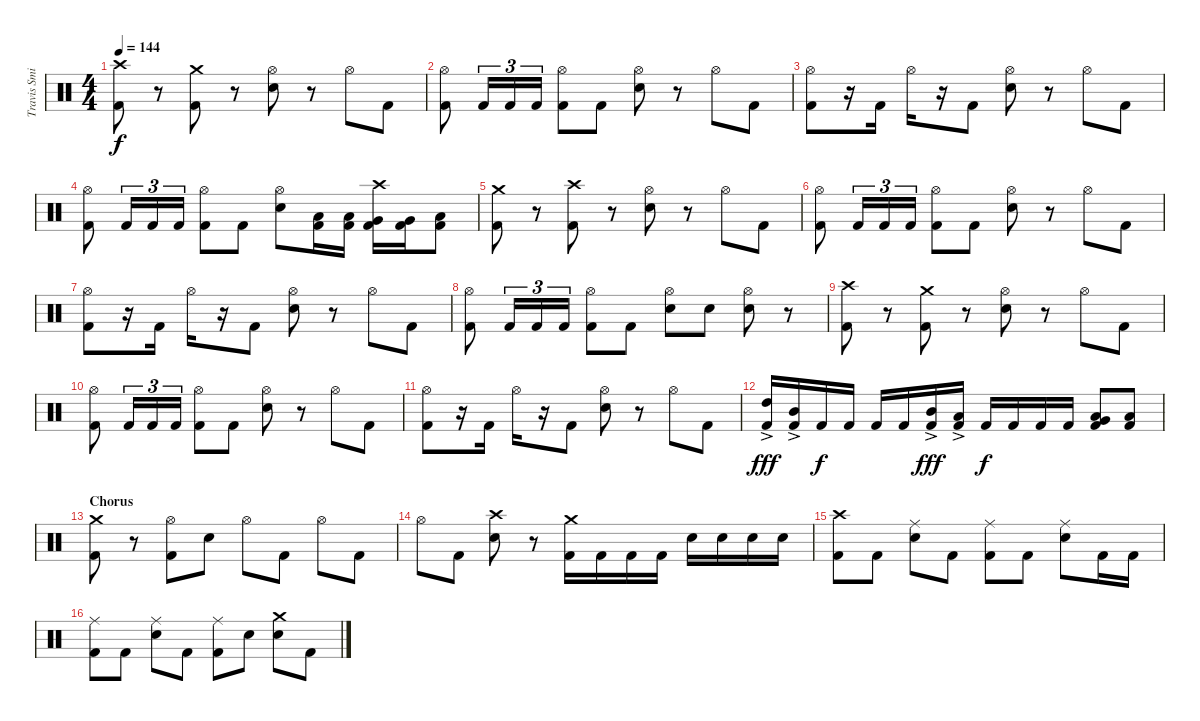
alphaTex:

\track ("Travis Smith" "Travis Smi") {instrument percussion}
\staff {score}
\articulation defaults
\ts (4 4)
\tempo 144
\clef neutral
\ks c
("Crash high (hit)" "Kick (hit) 2").8{dy f} r.8 ("Crash medium (hit)" "Kick (hit) 2").8 r.8 ("Hi-Hat (open)" "Electric Snare (hit)").8 r.8 "Hi-Hat (open)".8 "Kick (hit) 2".8 |
("Hi-Hat (open)" "Kick (hit) 2").8 "Kick (hit) 2".16{tu (3 2)} "Kick (hit) 2".16{tu (3 2)} "Kick (hit) 2".16{tu (3 2)} ("Hi-Hat (open)" "Kick (hit) 2").8 "Kick (hit) 2".8 ("Hi-Hat (open)" "Electric Snare (hit)").8 r.8 "Hi-Hat (open)".8 "Kick (hit) 2".8 |
("Hi-Hat (open)" "Kick (hit) 2").8 r.16 "Kick (hit) 2".16 "Hi-Hat (open)".16 r.16 "Kick (hit) 2".8 ("Hi-Hat (open)" "Electric Snare (hit)").8 r.8 "Hi-Hat (open)".8 "Kick (hit) 2".8 |
("Hi-Hat (open)" "Kick (hit) 2").8 "Kick (hit) 2".16{tu (3 2)} "Kick (hit) 2".16{tu (3 2)} "Kick (hit) 2".16{tu (3 2)} ("Hi-Hat (open)" "Kick (hit) 2").8 "Kick (hit) 2".8 ("Hi-Hat (open)" "Electric Snare (hit)").8 ("Low Tom (hit)" "Kick (hit) 2").16 ("Low Tom (hit)" "Kick (hit) 2").16 ("Crash high (hit)" "Very Low Tom (hit)" "Kick (hit) 2").16 ("Very Low Tom (hit)" "Kick (hit) 2").16 ("Low Floor Tom (hit)" "Kick (hit) 2").8 |
("Crash medium (hit)" "Kick (hit) 2").8 r.8 ("Crash high (hit)" "Kick (hit) 2").8 r.8 ("Hi-Hat (open)" "Electric Snare (hit)").8 r.8 "Hi-Hat (open)".8 "Kick (hit) 2".8 |
("Hi-Hat (open)" "Kick (hit) 2").8 "Kick (hit) 2".16{tu (3 2)} "Kick (hit) 2".16{tu (3 2)} "Kick (hit) 2".16{tu (3 2)} ("Hi-Hat (open)" "Kick (hit) 2").8 "Kick (hit) 2".8 ("Hi-Hat (open)" "Electric Snare (hit)").8 r.8 "Hi-Hat (open)".8 "Kick (hit) 2".8 |
("Hi-Hat (open)" "Kick (hit) 2").8 r.16 "Kick (hit) 2".16 "Hi-Hat (open)".16 r.16 "Kick (hit) 2".8 ("Hi-Hat (open)" "Electric Snare (hit)").8 r.8 "Hi-Hat (open)".8 "Kick (hit) 2".8 |
("Hi-Hat (open)" "Kick (hit) 2").8 "Kick (hit) 2".16{tu (3 2)} "Kick (hit) 2".16{tu (3 2)} "Kick (hit) 2".16{tu (3 2)} ("Hi-Hat (open)" "Kick (hit) 2").8 "Kick (hit) 2".8 ("Hi-Hat (open)" "Electric Snare (hit)").8 "Electric Snare (hit)".8 ("Hi-Hat (open)" "Electric Snare (hit)").8 r.8 |
("Crash high (hit)" "Kick (hit) 2").8 r.8 ("Crash medium (hit)" "Kick (hit) 2").8 r.8 ("Hi-Hat (open)" "Electric Snare (hit)").8 r.8 "Hi-Hat (open)".8 "Kick (hit) 2".8 |
("Hi-Hat (open)" "Kick (hit) 2").8 "Kick (hit) 2".16{tu (3 2)} "Kick (hit) 2".16{tu (3 2)} "Kick (hit) 2".16{tu (3 2)} ("Hi-Hat (open)" "Kick (hit) 2").8 "Kick (hit) 2".8 ("Hi-Hat (open)" "Electric Snare (hit)").8 r.8 "Hi-Hat (open)".8 "Kick (hit) 2".8 |
("Hi-Hat (open)" "Kick (hit) 2").8 r.16 "Kick (hit) 2".16 "Hi-Hat (open)".16 r.16 "Kick (hit) 2".8 ("Hi-Hat (open)" "Electric Snare (hit)").8 r.8 "Hi-Hat (open)".8 "Kick (hit) 2".8 |
("High Tom (hit)"{ac} "Kick (hit) 2").16{dy fff} ("Mid Tom (hit)"{ac} "Kick (hit) 2").16 "Kick (hit) 2".16{dy f} "Kick (hit) 2".16 "Kick (hit) 2".16 "Kick (hit) 2".16 ("Mid Tom (hit)"{ac} "Kick (hit) 2").16{dy fff} ("Low Tom (hit)"{ac} "Kick (hit) 2").16 "Kick (hit) 2".16{dy f} "Kick (hit) 2".16 "Kick (hit) 2".16 "Kick (hit) 2".16 ("Very Low Tom (hit)" "Low Tom (hit)" "Kick (hit) 2").8 ("Low Floor Tom (hit)" "Kick (hit) 2").8 |
\section ("" "Chorus")
("Crash medium (hit)" "Kick (hit) 2").8 r.8 ("Hi-Hat (open)" "Kick (hit) 2").8 "Electric Snare (hit)".8 "Hi-Hat (open)".8 "Kick (hit) 2".8 "Hi-Hat (open)".8 "Kick (hit) 2".8 |
"Hi-Hat (open)".8 "Kick (hit) 2".8 ("Crash high (hit)" "Electric Snare (hit)").8 r.8 ("Crash medium (hit)" "Kick (hit) 2").16 "Kick (hit) 2".16 "Kick (hit) 2".16 "Kick (hit) 2".16 "Electric Snare (hit)".16 "Electric Snare (hit)".16 "Electric Snare (hit)".16 "Electric Snare (hit)".16 |
("Crash high (hit)" "Kick (hit) 2").8 "Kick (hit) 2".8 ("Ride (middle)" "Electric Snare (hit)").8 "Kick (hit) 2".8 ("Ride (middle)" "Kick (hit) 2").8 "Kick (hit) 2".8 ("Ride (middle)" "Electric Snare (hit)").8 "Kick (hit) 2".16 "Kick (hit) 2".16 |
("Ride (middle)" "Kick (hit) 2").8 "Kick (hit) 2".8 ("Ride (middle)" "Electric Snare (hit)").8 "Kick (hit) 2".8 ("Ride (middle)" "Kick (hit) 2").8 "Electric Snare (hit)".8 ("Crash medium (hit)" "Electric Snare (hit)").8 "Kick (hit) 2".8
